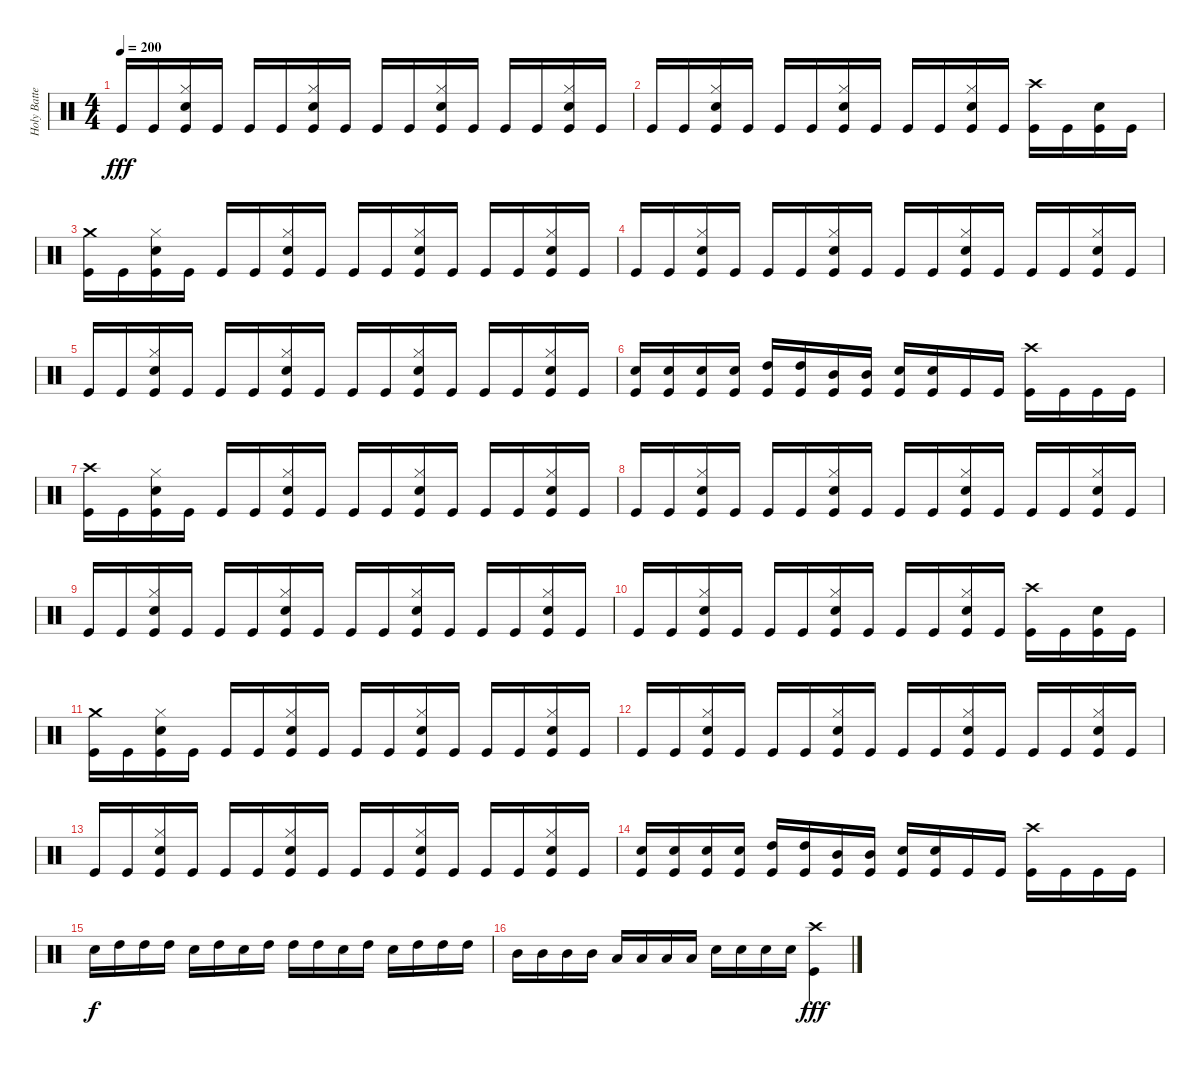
\track ("Holy Batteur" "Holy Batte") {instrument percussion}
\staff {score}
\articulation defaults
\ts (4 4)
\tempo 200
\clef neutral
\ks c "Kick (hit)".16{dy fff} "Kick (hit)".16
("Hi-Hat (closed)" "Electric Snare (hit)" "Kick (hit)").16 "Kick (hit)".16 "Kick (hit)".16 "Kick (hit)".16 ("Hi-Hat (closed)" "Electric Snare (hit)" "Kick (hit)").16 "Kick (hit)".16 "Kick (hit)".16 "Kick (hit)".16 ("Hi-Hat (closed)" "Electric Snare (hit)" "Kick (hit)").16 "Kick (hit)".16 "Kick (hit)".16 "Kick (hit)".16 ("Hi-Hat (closed)" "Electric Snare (hit)" "Kick (hit)").16 "Kick (hit)".16 |
"Kick (hit)".16 "Kick (hit)".16 ("Hi-Hat (closed)" "Electric Snare (hit)" "Kick (hit)").16 "Kick (hit)".16 "Kick (hit)".16 "Kick (hit)".16 ("Hi-Hat (closed)" "Electric Snare (hit)" "Kick (hit)").16 "Kick (hit)".16 "Kick (hit)".16 "Kick (hit)".16 ("Hi-Hat (closed)" "Electric Snare (hit)" "Kick (hit)").16 "Kick (hit)".16 ("Crash high (hit)" "Kick (hit)").16 "Kick (hit)".16 ("Electric Snare (hit)" "Kick (hit)").16 "Kick (hit)".16 |
("Crash medium (hit)" "Kick (hit)").16 "Kick (hit)".16 ("Hi-Hat (closed)" "Electric Snare (hit)" "Kick (hit)").16 "Kick (hit)".16 "Kick (hit)".16 "Kick (hit)".16 ("Hi-Hat (closed)" "Electric Snare (hit)" "Kick (hit)").16 "Kick (hit)".16 "Kick (hit)".16 "Kick (hit)".16 ("Hi-Hat (closed)" "Electric Snare (hit)" "Kick (hit)").16 "Kick (hit)".16 "Kick (hit)".16 "Kick (hit)".16 ("Hi-Hat (closed)" "Electric Snare (hit)" "Kick (hit)").16 "Kick (hit)".16 |
"Kick (hit)".16 "Kick (hit)".16 ("Hi-Hat (closed)" "Electric Snare (hit)" "Kick (hit)").16 "Kick (hit)".16 "Kick (hit)".16 "Kick (hit)".16 ("Hi-Hat (closed)" "Electric Snare (hit)" "Kick (hit)").16 "Kick (hit)".16 "Kick (hit)".16 "Kick (hit)".16 ("Hi-Hat (closed)" "Electric Snare (hit)" "Kick (hit)").16 "Kick (hit)".16 "Kick (hit)".16 "Kick (hit)".16 ("Hi-Hat (closed)" "Electric Snare (hit)" "Kick (hit)").16 "Kick (hit)".16 |
"Kick (hit)".16 "Kick (hit)".16 ("Hi-Hat (closed)" "Electric Snare (hit)" "Kick (hit)").16 "Kick (hit)".16 "Kick (hit)".16 "Kick (hit)".16 ("Hi-Hat (closed)" "Electric Snare (hit)" "Kick (hit)").16 "Kick (hit)".16 "Kick (hit)".16 "Kick (hit)".16 ("Hi-Hat (closed)" "Electric Snare (hit)" "Kick (hit)").16 "Kick (hit)".16 "Kick (hit)".16 "Kick (hit)".16 ("Hi-Hat (closed)" "Electric Snare (hit)" "Kick (hit)").16 "Kick (hit)".16 |
("Electric Snare (hit)" "Kick (hit)").16 ("Electric Snare (hit)" "Kick (hit)").16 ("Electric Snare (hit)" "Kick (hit)").16 ("Electric Snare (hit)" "Kick (hit)").16 ("High Tom (hit)" "Kick (hit)").16 ("High Tom (hit)" "Kick (hit)").16 ("Mid Tom (hit)" "Kick (hit)").16 ("Mid Tom (hit)" "Kick (hit)").16 ("Electric Snare (hit)" "Kick (hit)").16 ("Electric Snare (hit)" "Kick (hit)").16 "Kick (hit)".16 "Kick (hit)".16 ("Crash high (hit)" "Kick (hit)").16 "Kick (hit)".16 "Kick (hit)".16 "Kick (hit)".16 |
("Crash high (hit)" "Kick (hit)").16 "Kick (hit)".16 ("Hi-Hat (closed)" "Electric Snare (hit)" "Kick (hit)").16 "Kick (hit)".16 "Kick (hit)".16 "Kick (hit)".16 ("Hi-Hat (closed)" "Electric Snare (hit)" "Kick (hit)").16 "Kick (hit)".16 "Kick (hit)".16 "Kick (hit)".16 ("Hi-Hat (closed)" "Electric Snare (hit)" "Kick (hit)").16 "Kick (hit)".16 "Kick (hit)".16 "Kick (hit)".16 ("Hi-Hat (closed)" "Electric Snare (hit)" "Kick (hit)").16 "Kick (hit)".16 |
"Kick (hit)".16 "Kick (hit)".16 ("Hi-Hat (closed)" "Electric Snare (hit)" "Kick (hit)").16 "Kick (hit)".16 "Kick (hit)".16 "Kick (hit)".16 ("Hi-Hat (closed)" "Electric Snare (hit)" "Kick (hit)").16 "Kick (hit)".16 "Kick (hit)".16 "Kick (hit)".16 ("Hi-Hat (closed)" "Electric Snare (hit)" "Kick (hit)").16 "Kick (hit)".16 "Kick (hit)".16 "Kick (hit)".16 ("Hi-Hat (closed)" "Electric Snare (hit)" "Kick (hit)").16 "Kick (hit)".16 |
"Kick (hit)".16 "Kick (hit)".16 ("Hi-Hat (closed)" "Electric Snare (hit)" "Kick (hit)").16 "Kick (hit)".16 "Kick (hit)".16 "Kick (hit)".16 ("Hi-Hat (closed)" "Electric Snare (hit)" "Kick (hit)").16 "Kick (hit)".16 "Kick (hit)".16 "Kick (hit)".16 ("Hi-Hat (closed)" "Electric Snare (hit)" "Kick (hit)").16 "Kick (hit)".16 "Kick (hit)".16 "Kick (hit)".16 ("Hi-Hat (closed)" "Electric Snare (hit)" "Kick (hit)").16 "Kick (hit)".16 |
"Kick (hit)".16 "Kick (hit)".16 ("Hi-Hat (closed)" "Electric Snare (hit)" "Kick (hit)").16 "Kick (hit)".16 "Kick (hit)".16 "Kick (hit)".16 ("Hi-Hat (closed)" "Electric Snare (hit)" "Kick (hit)").16 "Kick (hit)".16 "Kick (hit)".16 "Kick (hit)".16 ("Hi-Hat (closed)" "Electric Snare (hit)" "Kick (hit)").16 "Kick (hit)".16 ("Crash high (hit)" "Kick (hit)").16 "Kick (hit)".16 ("Electric Snare (hit)" "Kick (hit)").16 "Kick (hit)".16 |
("Crash medium (hit)" "Kick (hit)").16 "Kick (hit)".16 ("Hi-Hat (closed)" "Electric Snare (hit)" "Kick (hit)").16 "Kick (hit)".16 "Kick (hit)".16 "Kick (hit)".16 ("Hi-Hat (closed)" "Electric Snare (hit)" "Kick (hit)").16 "Kick (hit)".16 "Kick (hit)".16 "Kick (hit)".16 ("Hi-Hat (closed)" "Electric Snare (hit)" "Kick (hit)").16 "Kick (hit)".16 "Kick (hit)".16 "Kick (hit)".16 ("Hi-Hat (closed)" "Electric Snare (hit)" "Kick (hit)").16 "Kick (hit)".16 |
"Kick (hit)".16 "Kick (hit)".16 ("Hi-Hat (closed)" "Electric Snare (hit)" "Kick (hit)").16 "Kick (hit)".16 "Kick (hit)".16 "Kick (hit)".16 ("Hi-Hat (closed)" "Electric Snare (hit)" "Kick (hit)").16 "Kick (hit)".16 "Kick (hit)".16 "Kick (hit)".16 ("Hi-Hat (closed)" "Electric Snare (hit)" "Kick (hit)").16 "Kick (hit)".16 "Kick (hit)".16 "Kick (hit)".16 ("Hi-Hat (closed)" "Electric Snare (hit)" "Kick (hit)").16 "Kick (hit)".16 |
"Kick (hit)".16 "Kick (hit)".16 ("Hi-Hat (closed)" "Electric Snare (hit)" "Kick (hit)").16 "Kick (hit)".16 "Kick (hit)".16 "Kick (hit)".16 ("Hi-Hat (closed)" "Electric Snare (hit)" "Kick (hit)").16 "Kick (hit)".16 "Kick (hit)".16 "Kick (hit)".16 ("Hi-Hat (closed)" "Electric Snare (hit)" "Kick (hit)").16 "Kick (hit)".16 "Kick (hit)".16 "Kick (hit)".16 ("Hi-Hat (closed)" "Electric Snare (hit)" "Kick (hit)").16 "Kick (hit)".16 |
("Electric Snare (hit)" "Kick (hit)").16 ("Electric Snare (hit)" "Kick (hit)").16 ("Electric Snare (hit)" "Kick (hit)").16 ("Electric Snare (hit)" "Kick (hit)").16 ("High Tom (hit)" "Kick (hit)").16 ("High Tom (hit)" "Kick (hit)").16 ("Mid Tom (hit)" "Kick (hit)").16 ("Mid Tom (hit)" "Kick (hit)").16 ("Electric Snare (hit)" "Kick (hit)").16 ("Electric Snare (hit)" "Kick (hit)").16 "Kick (hit)".16 "Kick (hit)".16 ("Crash high (hit)" "Kick (hit)").16 "Kick (hit)".16 "Kick (hit)".16 "Kick (hit)".16 |
"Electric Snare (hit)".16{dy f} "High Tom (hit)".16 "High Tom (hit)".16 "High Tom (hit)".16 "Electric Snare (hit)".16 "High Tom (hit)".16 "Electric Snare (hit)".16 "High Tom (hit)".16 "High Tom (hit)".16 "High Tom (hit)".16 "Electric Snare (hit)".16 "High Tom (hit)".16 "Electric Snare (hit)".16 "High Tom (hit)".16 "High Tom (hit)".16 "High Tom (hit)".16 |
"Mid Tom (hit)".16 "Mid Tom (hit)".16 "Mid Tom (hit)".16 "Mid Tom (hit)".16 "Low Tom (hit)".16 "Low Tom (hit)".16 "Low Tom (hit)".16 "Low Tom (hit)".16 "Electric Snare (hit)".16 "Electric Snare (hit)".16 "Electric Snare (hit)".16 "Electric Snare (hit)".16 ("Crash high (hit)" "Kick (hit)").4{dy fff}
